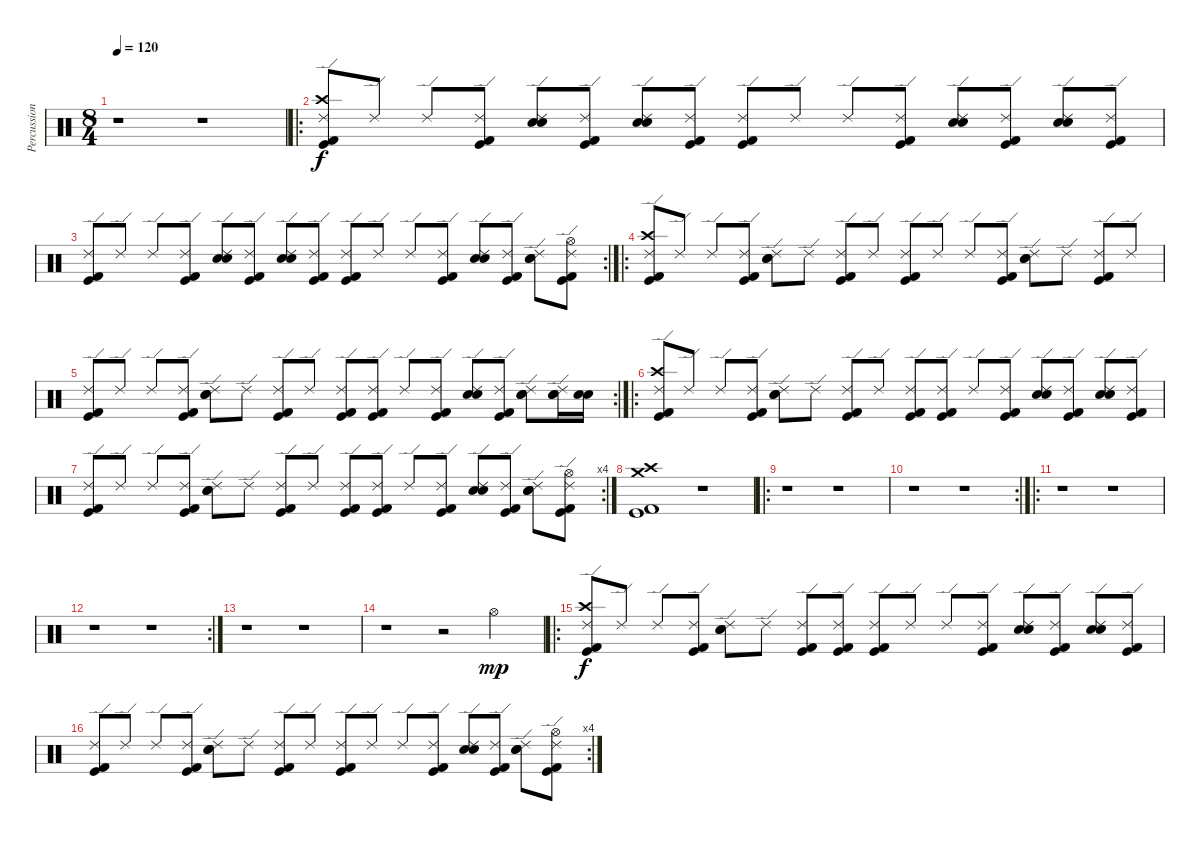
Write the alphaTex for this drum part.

\track ("Percussion" "Percussion") {instrument percussion}
\staff {score}
\articulation defaults
\ts (8 4)
\tempo 120
\clef neutral
\ks c
r.1{dy f} r.1 |
\ro
("Ride (edge) 2" "Crash high (hit)" "Kick (hit) 2" "Kick (hit)").8 "Ride (edge) 2".8 "Ride (edge) 2".8 ("Ride (edge) 2" "Kick (hit) 2" "Kick (hit)").8 ("Ride (edge) 2" "Electric Snare (hit)" "Snare (hit) 2").8 ("Ride (edge) 2" "Kick (hit) 2" "Kick (hit)").8 ("Ride (edge) 2" "Electric Snare (hit)" "Snare (hit) 2").8 ("Ride (edge) 2" "Kick (hit) 2" "Kick (hit)").8 ("Ride (edge) 2" "Kick (hit) 2" "Kick (hit)").8 "Ride (edge) 2".8 "Ride (edge) 2".8 ("Ride (edge) 2" "Kick (hit) 2" "Kick (hit)").8 ("Ride (edge) 2" "Electric Snare (hit)" "Snare (hit) 2").8 ("Ride (edge) 2" "Kick (hit) 2" "Kick (hit)").8 ("Ride (edge) 2" "Electric Snare (hit)" "Snare (hit) 2").8 ("Ride (edge) 2" "Kick (hit) 2" "Kick (hit)").8 |
\rc 2
("Ride (edge) 2" "Kick (hit) 2" "Kick (hit)").8 "Ride (edge) 2".8 "Ride (edge) 2".8 ("Ride (edge) 2" "Kick (hit) 2" "Kick (hit)").8 ("Ride (edge) 2" "Electric Snare (hit)" "Snare (hit) 2").8 ("Ride (edge) 2" "Kick (hit) 2" "Kick (hit)").8 ("Ride (edge) 2" "Electric Snare (hit)" "Snare (hit) 2").8 ("Ride (edge) 2" "Kick (hit) 2" "Kick (hit)").8 ("Ride (edge) 2" "Kick (hit) 2" "Kick (hit)").8 "Ride (edge) 2".8 "Ride (edge) 2".8 ("Ride (edge) 2" "Kick (hit) 2" "Kick (hit)").8 ("Ride (edge) 2" "Electric Snare (hit)" "Snare (hit) 2").8 ("Ride (edge) 2" "Kick (hit) 2" "Kick (hit)").8 ("Ride (edge) 2" "Electric Snare (hit)" "Snare (hit) 2").8 ("Ride (edge) 2" "Hi-Hat (open)" "Kick (hit) 2" "Kick (hit)").8 |
\ro
("Ride (edge) 2" "Crash high (hit)" "Kick (hit) 2" "Kick (hit)").8 "Ride (edge) 2".8 "Ride (edge) 2".8 ("Ride (edge) 2" "Kick (hit) 2" "Kick (hit)").8 ("Ride (edge) 2" "Electric Snare (hit)" "Snare (hit) 2").8 "Ride (edge) 2".8 ("Ride (edge) 2" "Kick (hit) 2" "Kick (hit)").8 "Ride (edge) 2".8 ("Ride (edge) 2" "Kick (hit) 2" "Kick (hit)").8 "Ride (edge) 2".8 "Ride (edge) 2".8 ("Ride (edge) 2" "Kick (hit) 2" "Kick (hit)").8 ("Ride (edge) 2" "Electric Snare (hit)" "Snare (hit) 2").8 "Ride (edge) 2".8 ("Ride (edge) 2" "Kick (hit) 2" "Kick (hit)").8 "Ride (edge) 2".8 |
\rc 2
("Ride (edge) 2" "Kick (hit) 2" "Kick (hit)").8 "Ride (edge) 2".8 "Ride (edge) 2".8 ("Ride (edge) 2" "Kick (hit) 2" "Kick (hit)").8 ("Ride (edge) 2" "Electric Snare (hit)" "Snare (hit) 2").8 "Ride (edge) 2".8 ("Ride (edge) 2" "Kick (hit) 2" "Kick (hit)").8 "Ride (edge) 2".8 ("Ride (edge) 2" "Kick (hit) 2" "Kick (hit)").8 ("Ride (edge) 2" "Kick (hit) 2" "Kick (hit)").8 "Ride (edge) 2".8 ("Ride (edge) 2" "Kick (hit) 2" "Kick (hit)").8 ("Ride (edge) 2" "Electric Snare (hit)" "Snare (hit) 2").8 ("Ride (edge) 2" "Kick (hit) 2" "Kick (hit)").8 ("Ride (edge) 2" "Electric Snare (hit)" "Snare (hit) 2").8 ("Ride (edge) 2" "Electric Snare (hit)" "Snare (hit) 2").16 ("Electric Snare (hit)" "Snare (hit) 2").16 |
\ro
("Ride (edge) 2" "Crash high (hit)" "Kick (hit) 2" "Kick (hit)").8 "Ride (edge) 2".8 "Ride (edge) 2".8 ("Ride (edge) 2" "Kick (hit) 2" "Kick (hit)").8 ("Ride (edge) 2" "Electric Snare (hit)" "Snare (hit) 2").8 "Ride (edge) 2".8 ("Ride (edge) 2" "Kick (hit) 2" "Kick (hit)").8 "Ride (edge) 2".8 ("Ride (edge) 2" "Kick (hit) 2" "Kick (hit)").8 ("Ride (edge) 2" "Kick (hit) 2" "Kick (hit)").8 "Ride (edge) 2".8 ("Ride (edge) 2" "Kick (hit) 2" "Kick (hit)").8 ("Ride (edge) 2" "Electric Snare (hit)" "Snare (hit) 2").8 ("Ride (edge) 2" "Kick (hit) 2" "Kick (hit)").8 ("Ride (edge) 2" "Electric Snare (hit)" "Snare (hit) 2").8 ("Ride (edge) 2" "Kick (hit) 2" "Kick (hit)").8 |
\rc 4
("Ride (edge) 2" "Kick (hit) 2" "Kick (hit)").8 "Ride (edge) 2".8 "Ride (edge) 2".8 ("Ride (edge) 2" "Kick (hit) 2" "Kick (hit)").8 ("Ride (edge) 2" "Electric Snare (hit)" "Snare (hit) 2").8 "Ride (edge) 2".8 ("Ride (edge) 2" "Kick (hit) 2" "Kick (hit)").8 "Ride (edge) 2".8 ("Ride (edge) 2" "Kick (hit) 2" "Kick (hit)").8 ("Ride (edge) 2" "Kick (hit) 2" "Kick (hit)").8 "Ride (edge) 2".8 ("Ride (edge) 2" "Kick (hit) 2" "Kick (hit)").8 ("Ride (edge) 2" "Electric Snare (hit)" "Snare (hit) 2").8 ("Ride (edge) 2" "Kick (hit) 2" "Kick (hit)").8 ("Ride (edge) 2" "Electric Snare (hit)" "Snare (hit) 2").8 ("Ride (edge) 2" "Hi-Hat (open)" "Kick (hit) 2" "Kick (hit)").8 |
("Crash high (hit)" "Crash medium (hit)" "Kick (hit) 2" "Kick (hit)").1 r.1 |
\ro
r.1 r.1 |
\rc 2
r.1 r.1 |
\ro
r.1 r.1 |
\rc 2
r.1 r.1 |
r.1 r.1 |
r.1 r.2 "Hi-Hat (open)".2{dy mp} |
\ro
("Ride (edge) 2" "Crash high (hit)" "Kick (hit) 2" "Kick (hit)").8{dy f} "Ride (edge) 2".8 "Ride (edge) 2".8 ("Ride (edge) 2" "Kick (hit) 2" "Kick (hit)").8 ("Ride (edge) 2" "Electric Snare (hit)" "Snare (hit) 2").8 "Ride (edge) 2".8 ("Ride (edge) 2" "Kick (hit) 2" "Kick (hit)").8 ("Ride (edge) 2" "Kick (hit) 2" "Kick (hit)").8 ("Ride (edge) 2" "Kick (hit) 2" "Kick (hit)").8 "Ride (edge) 2".8 "Ride (edge) 2".8 ("Ride (edge) 2" "Kick (hit) 2" "Kick (hit)").8 ("Ride (edge) 2" "Electric Snare (hit)" "Snare (hit) 2").8 ("Ride (edge) 2" "Kick (hit) 2" "Kick (hit)").8 ("Ride (edge) 2" "Electric Snare (hit)" "Snare (hit) 2").8 ("Ride (edge) 2" "Kick (hit) 2" "Kick (hit)").8 |
\rc 4
("Ride (edge) 2" "Kick (hit) 2" "Kick (hit)").8 "Ride (edge) 2".8 "Ride (edge) 2".8 ("Ride (edge) 2" "Kick (hit) 2" "Kick (hit)").8 ("Ride (edge) 2" "Electric Snare (hit)" "Snare (hit) 2").8 "Ride (edge) 2".8 ("Ride (edge) 2" "Kick (hit) 2" "Kick (hit)").8 "Ride (edge) 2".8 ("Ride (edge) 2" "Kick (hit) 2" "Kick (hit)").8 "Ride (edge) 2".8 "Ride (edge) 2".8 ("Ride (edge) 2" "Kick (hit) 2" "Kick (hit)").8 ("Ride (edge) 2" "Electric Snare (hit)" "Snare (hit) 2").8 ("Ride (edge) 2" "Kick (hit) 2" "Kick (hit)").8 ("Ride (edge) 2" "Electric Snare (hit)" "Snare (hit) 2").8 ("Ride (edge) 2" "Hi-Hat (open)" "Kick (hit) 2" "Kick (hit)").8
